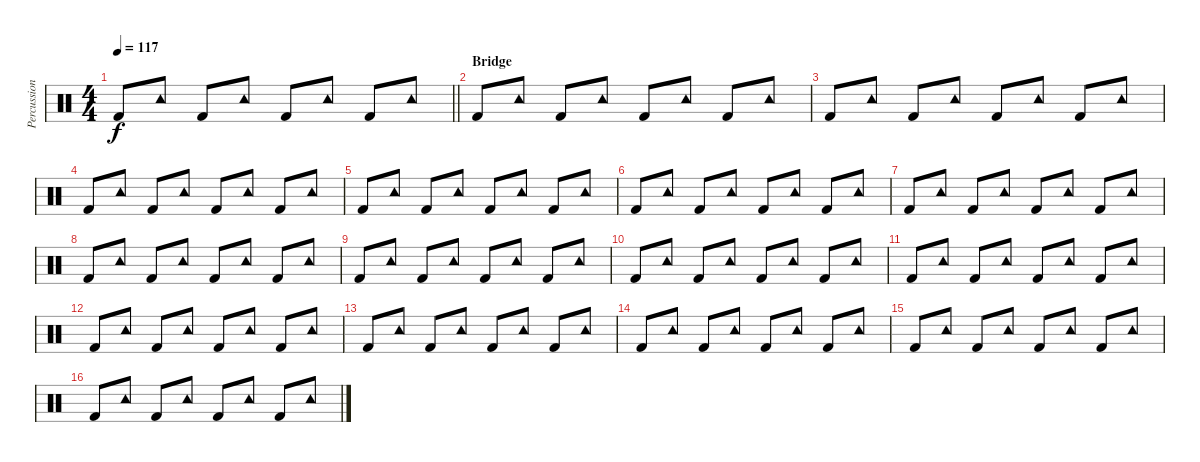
\track ("Percussion" "Percussion") {instrument percussion}
\staff {score}
\articulation defaults
\ts (4 4)
\tempo 117
\clef neutral
\barLineRight lightlight
\ks c "Kick (hit) 2".8{dy f} "Tambourine (hit)".8 "Kick (hit) 2".8 "Tambourine (hit)".8 "Kick (hit) 2".8 "Tambourine (hit)".8 "Kick (hit) 2".8 "Tambourine (hit)".8
|
\section ("" "Bridge")
"Kick (hit) 2".8 "Tambourine (hit)".8 "Kick (hit) 2".8 "Tambourine (hit)".8 "Kick (hit) 2".8 "Tambourine (hit)".8 "Kick (hit) 2".8 "Tambourine (hit)".8 |
"Kick (hit) 2".8 "Tambourine (hit)".8 "Kick (hit) 2".8 "Tambourine (hit)".8 "Kick (hit) 2".8 "Tambourine (hit)".8 "Kick (hit) 2".8 "Tambourine (hit)".8 |
"Kick (hit) 2".8 "Tambourine (hit)".8 "Kick (hit) 2".8 "Tambourine (hit)".8 "Kick (hit) 2".8 "Tambourine (hit)".8 "Kick (hit) 2".8 "Tambourine (hit)".8 |
"Kick (hit) 2".8 "Tambourine (hit)".8 "Kick (hit) 2".8 "Tambourine (hit)".8 "Kick (hit) 2".8 "Tambourine (hit)".8 "Kick (hit) 2".8 "Tambourine (hit)".8 |
"Kick (hit) 2".8 "Tambourine (hit)".8 "Kick (hit) 2".8 "Tambourine (hit)".8 "Kick (hit) 2".8 "Tambourine (hit)".8 "Kick (hit) 2".8 "Tambourine (hit)".8 |
"Kick (hit) 2".8 "Tambourine (hit)".8 "Kick (hit) 2".8 "Tambourine (hit)".8 "Kick (hit) 2".8 "Tambourine (hit)".8 "Kick (hit) 2".8 "Tambourine (hit)".8 |
"Kick (hit) 2".8 "Tambourine (hit)".8 "Kick (hit) 2".8 "Tambourine (hit)".8 "Kick (hit) 2".8 "Tambourine (hit)".8 "Kick (hit) 2".8 "Tambourine (hit)".8 |
"Kick (hit) 2".8 "Tambourine (hit)".8 "Kick (hit) 2".8 "Tambourine (hit)".8 "Kick (hit) 2".8 "Tambourine (hit)".8 "Kick (hit) 2".8 "Tambourine (hit)".8 |
"Kick (hit) 2".8 "Tambourine (hit)".8 "Kick (hit) 2".8 "Tambourine (hit)".8 "Kick (hit) 2".8 "Tambourine (hit)".8 "Kick (hit) 2".8 "Tambourine (hit)".8 |
"Kick (hit) 2".8 "Tambourine (hit)".8 "Kick (hit) 2".8 "Tambourine (hit)".8 "Kick (hit) 2".8 "Tambourine (hit)".8 "Kick (hit) 2".8 "Tambourine (hit)".8 |
"Kick (hit) 2".8 "Tambourine (hit)".8 "Kick (hit) 2".8 "Tambourine (hit)".8 "Kick (hit) 2".8 "Tambourine (hit)".8 "Kick (hit) 2".8 "Tambourine (hit)".8 |
"Kick (hit) 2".8 "Tambourine (hit)".8 "Kick (hit) 2".8 "Tambourine (hit)".8 "Kick (hit) 2".8 "Tambourine (hit)".8 "Kick (hit) 2".8 "Tambourine (hit)".8 |
"Kick (hit) 2".8 "Tambourine (hit)".8 "Kick (hit) 2".8 "Tambourine (hit)".8 "Kick (hit) 2".8 "Tambourine (hit)".8 "Kick (hit) 2".8 "Tambourine (hit)".8 |
"Kick (hit) 2".8 "Tambourine (hit)".8 "Kick (hit) 2".8 "Tambourine (hit)".8 "Kick (hit) 2".8 "Tambourine (hit)".8 "Kick (hit) 2".8 "Tambourine (hit)".8 |
"Kick (hit) 2".8 "Tambourine (hit)".8 "Kick (hit) 2".8 "Tambourine (hit)".8 "Kick (hit) 2".8 "Tambourine (hit)".8 "Kick (hit) 2".8 "Tambourine (hit)".8
